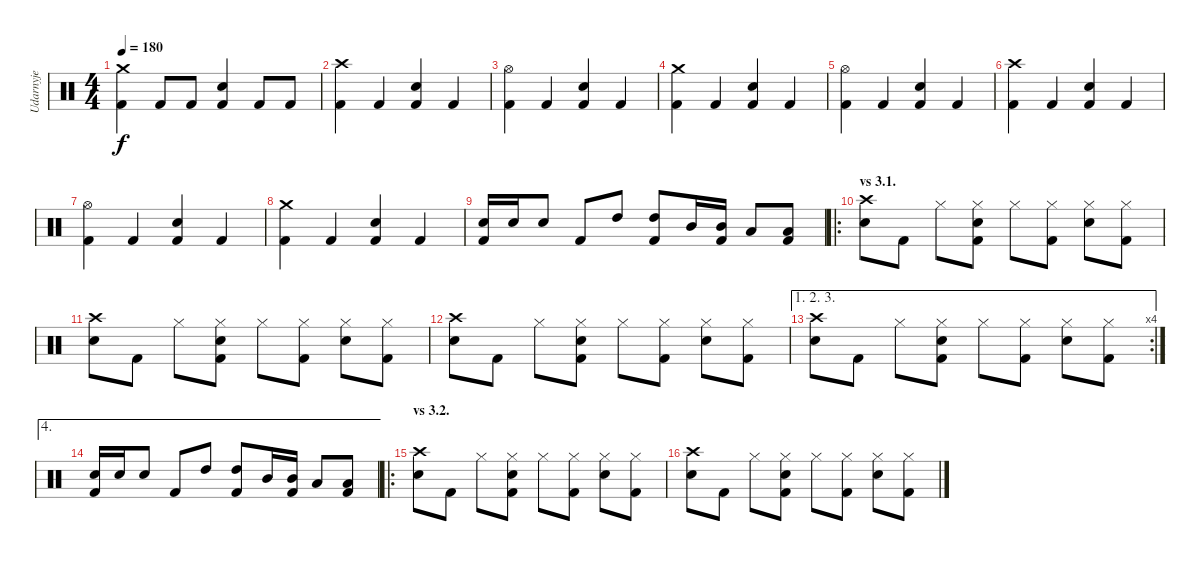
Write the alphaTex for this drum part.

\track ("Udarnyje" "Udarnyje") {instrument percussion}
\staff {score}
\articulation defaults
\ts (4 4)
\tempo 180
\clef neutral
\ks c
("Crash medium (hit)" "Kick (hit) 2").4{dy f} "Kick (hit) 2".8 "Kick (hit) 2".8 ("Electric Snare (hit)" "Kick (hit) 2").4 "Kick (hit) 2".8 "Kick (hit) 2".8 |
("Crash high (hit)" "Kick (hit) 2").4 "Kick (hit) 2".4 ("Electric Snare (hit)" "Kick (hit) 2").4 "Kick (hit) 2".4 |
("Hi-Hat (open)" "Kick (hit) 2").4 "Kick (hit) 2".4 ("Electric Snare (hit)" "Kick (hit) 2").4 "Kick (hit) 2".4 |
("Crash medium (hit)" "Kick (hit) 2").4 "Kick (hit) 2".4 ("Electric Snare (hit)" "Kick (hit) 2").4 "Kick (hit) 2".4 |
("Hi-Hat (open)" "Kick (hit) 2").4 "Kick (hit) 2".4 ("Electric Snare (hit)" "Kick (hit) 2").4 "Kick (hit) 2".4 |
("Crash high (hit)" "Kick (hit) 2").4 "Kick (hit) 2".4 ("Electric Snare (hit)" "Kick (hit) 2").4 "Kick (hit) 2".4 |
("Hi-Hat (open)" "Kick (hit) 2").4 "Kick (hit) 2".4 ("Electric Snare (hit)" "Kick (hit) 2").4 "Kick (hit) 2".4 |
("Crash medium (hit)" "Kick (hit) 2").4 "Kick (hit) 2".4 ("Electric Snare (hit)" "Kick (hit) 2").4 "Kick (hit) 2".4 |
("Electric Snare (hit)" "Kick (hit) 2").16 "Electric Snare (hit)".16 "Electric Snare (hit)".8 "Kick (hit) 2".8 "High Tom (hit)".8 ("High Tom (hit)" "Kick (hit) 2").8 "Mid Tom (hit)".16 ("Mid Tom (hit)" "Kick (hit) 2").16 "Low Tom (hit)".8 ("Low Tom (hit)" "Kick (hit) 2").8 |
\ro
\section ("" "vs 3.1.")
("Crash high (hit)" "Electric Snare (hit)").8 "Kick (hit) 2".8 "Hi-Hat (closed)".8 ("Hi-Hat (closed)" "Electric Snare (hit)" "Kick (hit) 2").8 "Hi-Hat (closed)".8 ("Hi-Hat (closed)" "Kick (hit) 2").8 ("Hi-Hat (closed)" "Electric Snare (hit)").8 ("Hi-Hat (closed)" "Kick (hit) 2").8 |
("Crash high (hit)" "Electric Snare (hit)").8 "Kick (hit) 2".8 "Hi-Hat (closed)".8 ("Hi-Hat (closed)" "Electric Snare (hit)" "Kick (hit) 2").8 "Hi-Hat (closed)".8 ("Hi-Hat (closed)" "Kick (hit) 2").8 ("Hi-Hat (closed)" "Electric Snare (hit)").8 ("Hi-Hat (closed)" "Kick (hit) 2").8 |
("Crash high (hit)" "Electric Snare (hit)").8 "Kick (hit) 2".8 "Hi-Hat (closed)".8 ("Hi-Hat (closed)" "Electric Snare (hit)" "Kick (hit) 2").8 "Hi-Hat (closed)".8 ("Hi-Hat (closed)" "Kick (hit) 2").8 ("Hi-Hat (closed)" "Electric Snare (hit)").8 ("Hi-Hat (closed)" "Kick (hit) 2").8 |
\ae (1 2 3)
\rc 4
("Crash high (hit)" "Electric Snare (hit)").8 "Kick (hit) 2".8 "Hi-Hat (closed)".8 ("Hi-Hat (closed)" "Electric Snare (hit)" "Kick (hit) 2").8 "Hi-Hat (closed)".8 ("Hi-Hat (closed)" "Kick (hit) 2").8 ("Hi-Hat (closed)" "Electric Snare (hit)").8 ("Hi-Hat (closed)" "Kick (hit) 2").8 |
\ae 4
("Electric Snare (hit)" "Kick (hit) 2").16 "Electric Snare (hit)".16 "Electric Snare (hit)".8 "Kick (hit) 2".8 "High Tom (hit)".8 ("High Tom (hit)" "Kick (hit) 2").8 "Mid Tom (hit)".16 ("Mid Tom (hit)" "Kick (hit) 2").16 "Low Tom (hit)".8 ("Low Tom (hit)" "Kick (hit) 2").8 |
\ro
\section ("" "vs 3.2.")
("Crash high (hit)" "Electric Snare (hit)").8 "Kick (hit) 2".8 "Hi-Hat (closed)".8 ("Hi-Hat (closed)" "Electric Snare (hit)" "Kick (hit) 2").8 "Hi-Hat (closed)".8 ("Hi-Hat (closed)" "Kick (hit) 2").8 ("Hi-Hat (closed)" "Electric Snare (hit)").8 ("Hi-Hat (closed)" "Kick (hit) 2").8 |
("Crash high (hit)" "Electric Snare (hit)").8 "Kick (hit) 2".8 "Hi-Hat (closed)".8 ("Hi-Hat (closed)" "Electric Snare (hit)" "Kick (hit) 2").8 "Hi-Hat (closed)".8 ("Hi-Hat (closed)" "Kick (hit) 2").8 ("Hi-Hat (closed)" "Electric Snare (hit)").8 ("Hi-Hat (closed)" "Kick (hit) 2").8
